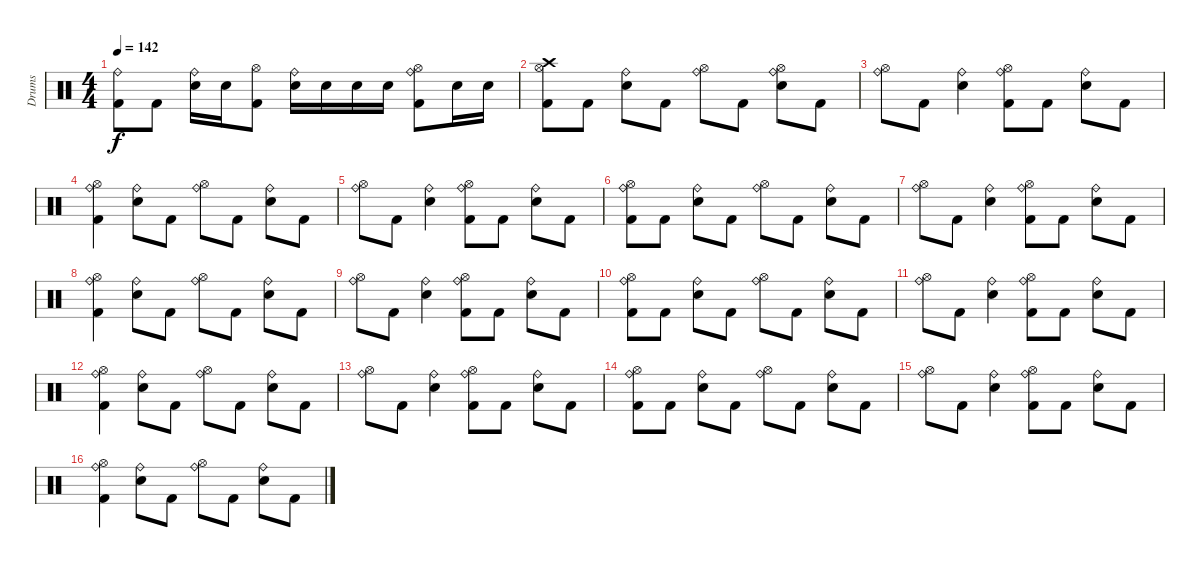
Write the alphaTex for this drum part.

\track ("Drums" "Drums") {instrument percussion}
\staff {score}
\articulation defaults
\ts (4 4)
\tempo 142
\clef neutral
\ks c
("Kick (hit) 2" "Ride (bell)").8{dy f} "Kick (hit) 2".8 ("Snare (hit) 2" "Ride (bell)").16 "Snare (hit) 2".16 ("Kick (hit) 2" "Hi-Hat (open)").8 ("Snare (hit) 2" "Ride (bell)").16 "Snare (hit) 2".16 "Snare (hit) 2".16 "Snare (hit) 2".16 ("Kick (hit) 2" "Hi-Hat (open)" "Ride (bell)").8 "Snare (hit) 2".16 "Snare (hit) 2".16 |
("Kick (hit) 2" "Hi-Hat (open)" "Crash high (hit)").8 "Kick (hit) 2".8 ("Snare (hit) 2" "Ride (bell)").8 "Kick (hit) 2".8 ("Hi-Hat (open)" "Ride (bell)").8 "Kick (hit) 2".8 ("Snare (hit) 2" "Hi-Hat (open)" "Ride (bell)").8 "Kick (hit) 2".8 |
("Hi-Hat (open)" "Ride (bell)").8 "Kick (hit) 2".8 ("Snare (hit) 2" "Ride (bell)").4 ("Kick (hit) 2" "Hi-Hat (open)" "Ride (bell)").8 "Kick (hit) 2".8 ("Snare (hit) 2" "Ride (bell)").8 "Kick (hit) 2".8 |
("Kick (hit) 2" "Hi-Hat (open)" "Ride (bell)").4 ("Snare (hit) 2" "Ride (bell)").8 "Kick (hit) 2".8 ("Hi-Hat (open)" "Ride (bell)").8 "Kick (hit) 2".8 ("Snare (hit) 2" "Ride (bell)").8 "Kick (hit) 2".8 |
("Hi-Hat (open)" "Ride (bell)").8 "Kick (hit) 2".8 ("Snare (hit) 2" "Ride (bell)").4 ("Kick (hit) 2" "Hi-Hat (open)" "Ride (bell)").8 "Kick (hit) 2".8 ("Snare (hit) 2" "Ride (bell)").8 "Kick (hit) 2".8 |
("Kick (hit) 2" "Hi-Hat (open)" "Ride (bell)").8 "Kick (hit) 2".8 ("Snare (hit) 2" "Ride (bell)").8 "Kick (hit) 2".8 ("Hi-Hat (open)" "Ride (bell)").8 "Kick (hit) 2".8 ("Snare (hit) 2" "Ride (bell)").8 "Kick (hit) 2".8 |
("Hi-Hat (open)" "Ride (bell)").8 "Kick (hit) 2".8 ("Snare (hit) 2" "Ride (bell)").4 ("Kick (hit) 2" "Hi-Hat (open)" "Ride (bell)").8 "Kick (hit) 2".8 ("Snare (hit) 2" "Ride (bell)").8 "Kick (hit) 2".8 |
("Kick (hit) 2" "Hi-Hat (open)" "Ride (bell)").4 ("Snare (hit) 2" "Ride (bell)").8 "Kick (hit) 2".8 ("Hi-Hat (open)" "Ride (bell)").8 "Kick (hit) 2".8 ("Snare (hit) 2" "Ride (bell)").8 "Kick (hit) 2".8 |
("Hi-Hat (open)" "Ride (bell)").8 "Kick (hit) 2".8 ("Snare (hit) 2" "Ride (bell)").4 ("Kick (hit) 2" "Hi-Hat (open)" "Ride (bell)").8 "Kick (hit) 2".8 ("Snare (hit) 2" "Ride (bell)").8 "Kick (hit) 2".8 |
("Kick (hit) 2" "Hi-Hat (open)" "Ride (bell)").8 "Kick (hit) 2".8 ("Snare (hit) 2" "Ride (bell)").8 "Kick (hit) 2".8 ("Hi-Hat (open)" "Ride (bell)").8 "Kick (hit) 2".8 ("Snare (hit) 2" "Ride (bell)").8 "Kick (hit) 2".8 |
("Hi-Hat (open)" "Ride (bell)").8 "Kick (hit) 2".8 ("Snare (hit) 2" "Ride (bell)").4 ("Kick (hit) 2" "Hi-Hat (open)" "Ride (bell)").8 "Kick (hit) 2".8 ("Snare (hit) 2" "Ride (bell)").8 "Kick (hit) 2".8 |
("Kick (hit) 2" "Hi-Hat (open)" "Ride (bell)").4 ("Snare (hit) 2" "Ride (bell)").8 "Kick (hit) 2".8 ("Hi-Hat (open)" "Ride (bell)").8 "Kick (hit) 2".8 ("Snare (hit) 2" "Ride (bell)").8 "Kick (hit) 2".8 |
("Hi-Hat (open)" "Ride (bell)").8 "Kick (hit) 2".8 ("Snare (hit) 2" "Ride (bell)").4 ("Kick (hit) 2" "Hi-Hat (open)" "Ride (bell)").8 "Kick (hit) 2".8 ("Snare (hit) 2" "Ride (bell)").8 "Kick (hit) 2".8 |
("Kick (hit) 2" "Hi-Hat (open)" "Ride (bell)").8 "Kick (hit) 2".8 ("Snare (hit) 2" "Ride (bell)").8 "Kick (hit) 2".8 ("Hi-Hat (open)" "Ride (bell)").8 "Kick (hit) 2".8 ("Snare (hit) 2" "Ride (bell)").8 "Kick (hit) 2".8 |
("Hi-Hat (open)" "Ride (bell)").8 "Kick (hit) 2".8 ("Snare (hit) 2" "Ride (bell)").4 ("Kick (hit) 2" "Hi-Hat (open)" "Ride (bell)").8 "Kick (hit) 2".8 ("Snare (hit) 2" "Ride (bell)").8 "Kick (hit) 2".8 |
("Kick (hit) 2" "Hi-Hat (open)" "Ride (bell)").4 ("Snare (hit) 2" "Ride (bell)").8 "Kick (hit) 2".8 ("Hi-Hat (open)" "Ride (bell)").8 "Kick (hit) 2".8 ("Snare (hit) 2" "Ride (bell)").8 "Kick (hit) 2".8
